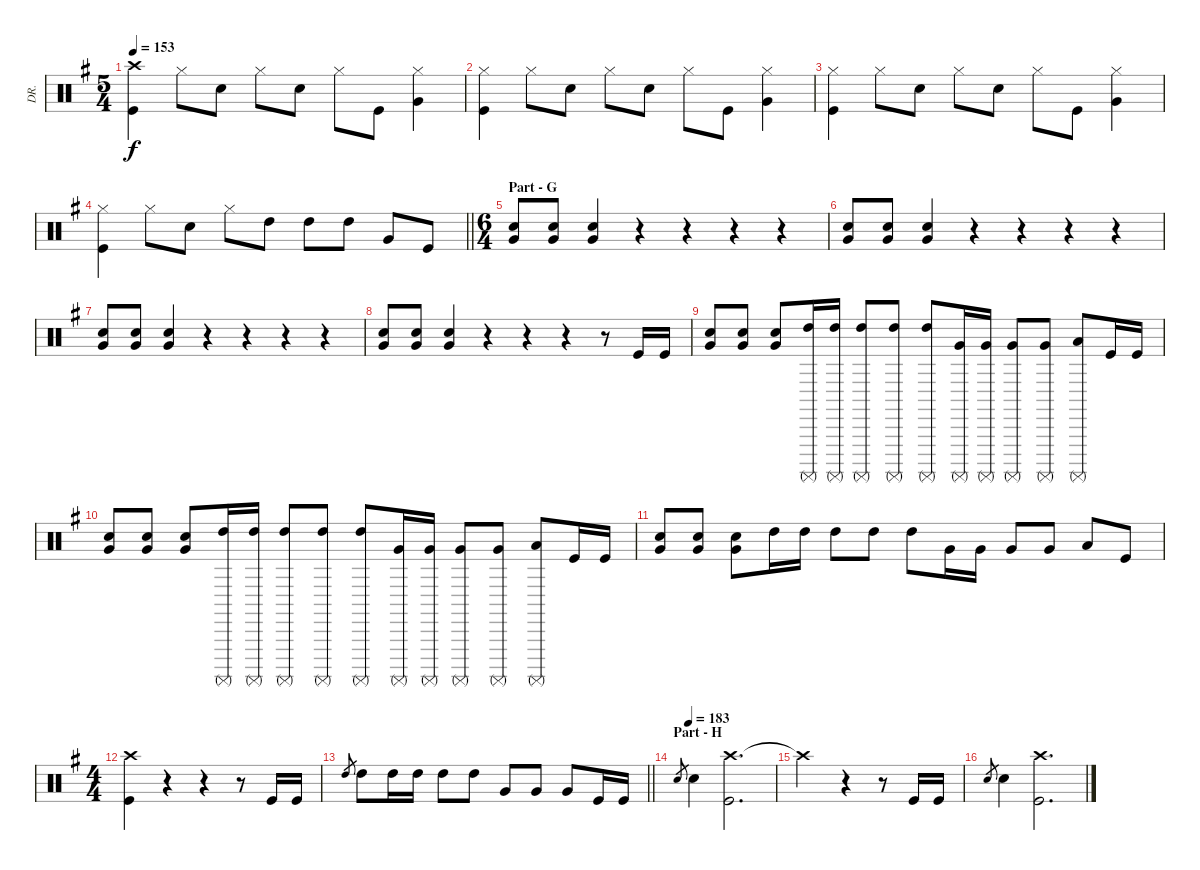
\track ("DR." "DR.") {instrument percussion}
\staff {score}
\articulation defaults
\ts (5 4)
\tempo 153
\clef neutral
\ks g
("Crash high (hit)" "Kick (hit)").4{dy f} "Hi-Hat (closed)".8 "Snare (hit) 2".8 "Hi-Hat (closed)".8 "Snare (hit) 2".8 "Hi-Hat (closed)".8 "Kick (hit)".8 ("Hi-Hat (closed)" "Very Low Tom (hit)").4 |
("Hi-Hat (closed)" "Kick (hit)").4 "Hi-Hat (closed)".8 "Snare (hit) 2".8 "Hi-Hat (closed)".8 "Snare (hit) 2".8 "Hi-Hat (closed)".8 "Kick (hit)".8 ("Hi-Hat (closed)" "Very Low Tom (hit)").4 |
("Hi-Hat (closed)" "Kick (hit)").4 "Hi-Hat (closed)".8 "Snare (hit) 2".8 "Hi-Hat (closed)".8 "Snare (hit) 2".8 "Hi-Hat (closed)".8 "Kick (hit)".8 ("Hi-Hat (closed)" "Very Low Tom (hit)").4 |
\barLineRight lightlight
("Hi-Hat (closed)" "Kick (hit)").4 "Hi-Hat (closed)".8 "Snare (hit) 2".8 "Hi-Hat (closed)".8 "High Tom (hit)".8 "High Tom (hit)".8 "High Tom (hit)".8 "Very Low Tom (hit)".8 "Kick (hit)".8 |
\ts (6 4)
\section ("" "Part - G")
("Snare (hit) 2" "Very Low Tom (hit)").8 ("Snare (hit) 2" "Very Low Tom (hit)").8 ("Snare (hit) 2" "Very Low Tom (hit)").4 r.4 r.4 r.4 r.4 |
("Snare (hit) 2" "Very Low Tom (hit)").8 ("Snare (hit) 2" "Very Low Tom (hit)").8 ("Snare (hit) 2" "Very Low Tom (hit)").4 r.4 r.4 r.4 r.4 |
("Snare (hit) 2" "Very Low Tom (hit)").8 ("Snare (hit) 2" "Very Low Tom (hit)").8 ("Snare (hit) 2" "Very Low Tom (hit)").4 r.4 r.4 r.4 r.4 |
("Snare (hit) 2" "Very Low Tom (hit)").8 ("Snare (hit) 2" "Very Low Tom (hit)").8 ("Snare (hit) 2" "Very Low Tom (hit)").4 r.4 r.4 r.4 r.8 "Kick (hit)".16 "Kick (hit)".16 |
("Snare (hit) 2" "Very Low Tom (hit)").8 ("Snare (hit) 2" "Very Low Tom (hit)").8 ("Snare (hit) 2" "Very Low Tom (hit)").8 ("High Tom (hit)" "Surdo (mute)").16 ("High Tom (hit)" "Surdo (mute)").16 ("High Tom (hit)" "Surdo (mute)").8 ("High Tom (hit)" "Surdo (mute)").8 ("High Tom (hit)" "Surdo (mute)").8 ("Very Low Tom (hit)" "Surdo (mute)").16 ("Very Low Tom (hit)" "Surdo (mute)").16 ("Very Low Tom (hit)" "Surdo (mute)").8 ("Very Low Tom (hit)" "Surdo (mute)").8 ("Low Floor Tom (hit)" "Surdo (mute)").8 "Kick (hit)".16 "Kick (hit)".16 |
("Snare (hit) 2" "Very Low Tom (hit)").8 ("Snare (hit) 2" "Very Low Tom (hit)").8 ("Snare (hit) 2" "Very Low Tom (hit)").8 ("High Tom (hit)" "Surdo (mute)").16 ("High Tom (hit)" "Surdo (mute)").16 ("High Tom (hit)" "Surdo (mute)").8 ("High Tom (hit)" "Surdo (mute)").8 ("High Tom (hit)" "Surdo (mute)").8 ("Very Low Tom (hit)" "Surdo (mute)").16 ("Very Low Tom (hit)" "Surdo (mute)").16 ("Very Low Tom (hit)" "Surdo (mute)").8 ("Very Low Tom (hit)" "Surdo (mute)").8 ("Low Floor Tom (hit)" "Surdo (mute)").8 "Kick (hit)".16 "Kick (hit)".16 |
("Snare (hit) 2" "Very Low Tom (hit)").8 ("Snare (hit) 2" "Very Low Tom (hit)").8 ("Snare (hit) 2" "Very Low Tom (hit)").8 "High Tom (hit)".16 "High Tom (hit)".16 "High Tom (hit)".8 "High Tom (hit)".8 "High Tom (hit)".8 "Very Low Tom (hit)".16 "Very Low Tom (hit)".16 "Very Low Tom (hit)".8 "Very Low Tom (hit)".8 "Low Floor Tom (hit)".8 "Kick (hit)".8 |
\ts (4 4)
("Crash high (hit)" "Kick (hit)").4 r.4 r.4 r.8 "Kick (hit)".16 "Kick (hit)".16 |
\barLineRight lightlight "High Tom (hit)"{h}.8{gr} "High Tom (hit)".8 "High Tom (hit)".16 "High Tom (hit)".16 "High Tom (hit)".8 "High Tom (hit)".8 "Very Low Tom (hit)".8 "Very Low Tom (hit)".8 "Very Low Tom (hit)".8 "Kick (hit)".16 "Kick (hit)".16
|
\section ("" "Part - H")
\tempo (183 0.125)
"Snare (hit) 2".8{gr} "Snare (hit) 2".4 ("Crash high (hit)" "Kick (hit)").2{d} |
"Crash high (hit)"{t}.2 r.4 r.8 "Kick (hit)".16 "Kick (hit)".16 |
"Snare (hit) 2".8{gr} "Snare (hit) 2".4 ("Crash high (hit)" "Kick (hit)").2{d}
